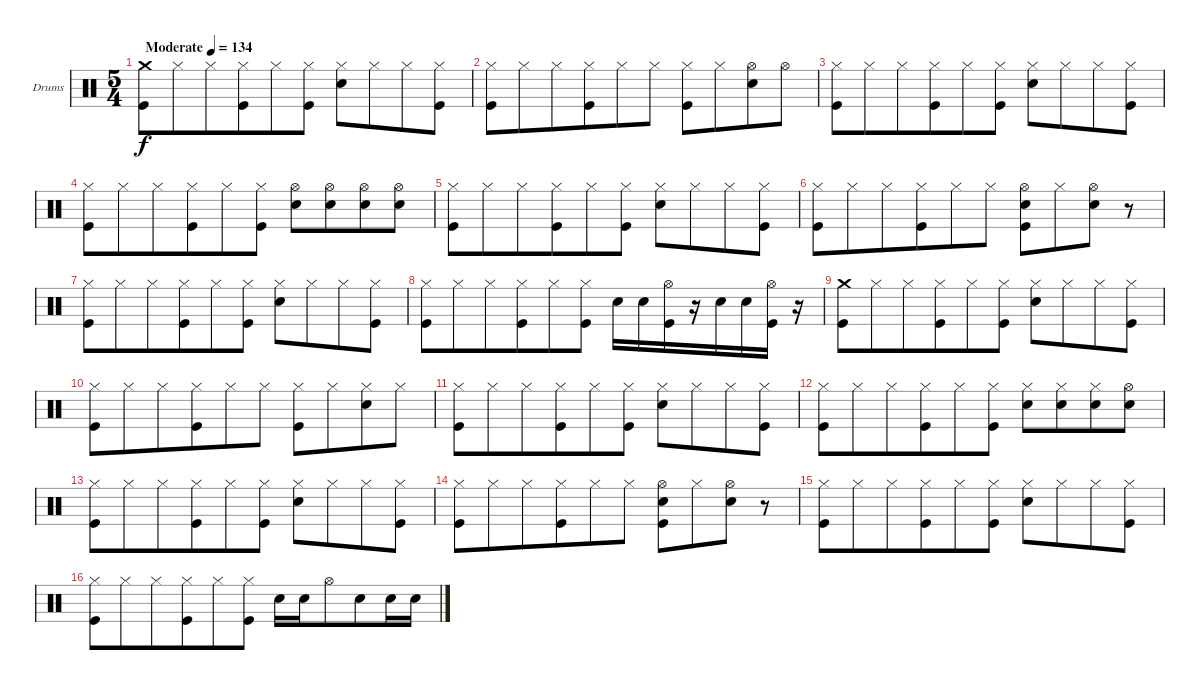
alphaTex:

\bracketExtendMode groupsimilarinstruments
\firstSystemTrackNameOrientation horizontal
\otherSystemsTrackNameOrientation horizontal
\track ("Drumkit" "Drums") {instrument percussion}
\staff {score}
\articulation defaults
\ts (5 4)
\beaming (8 6 4)
\tempo (134 "Moderate")
\clef neutral
\ks c
("Kick (hit)" "Crash medium (hit)").8{dy f} "Hi-Hat (closed)".8 "Hi-Hat (closed)".8 ("Kick (hit)" "Hi-Hat (closed)").8 "Hi-Hat (closed)".8 ("Hi-Hat (closed)" "Kick (hit)").8 ("Snare (hit) 2" "Hi-Hat (closed)").8 "Hi-Hat (closed)".8 "Hi-Hat (closed)".8 ("Hi-Hat (closed)" "Kick (hit)").8 |
("Hi-Hat (closed)" "Kick (hit)").8 "Hi-Hat (closed)".8 "Hi-Hat (closed)".8 ("Kick (hit)" "Hi-Hat (closed)").8 "Hi-Hat (closed)".8 "Hi-Hat (closed)".8 ("Hi-Hat (closed)" "Kick (hit)").8 "Hi-Hat (closed)".8 ("Snare (hit) 2" "Hi-Hat (open)").8 "Hi-Hat (open)".8 |
("Hi-Hat (closed)" "Kick (hit)").8 "Hi-Hat (closed)".8 "Hi-Hat (closed)".8 ("Kick (hit)" "Hi-Hat (closed)").8 "Hi-Hat (closed)".8 ("Hi-Hat (closed)" "Kick (hit)").8 ("Snare (hit) 2" "Hi-Hat (closed)").8 "Hi-Hat (closed)".8 "Hi-Hat (closed)".8 ("Hi-Hat (closed)" "Kick (hit)").8 |
("Hi-Hat (closed)" "Kick (hit)").8 "Hi-Hat (closed)".8 "Hi-Hat (closed)".8 ("Kick (hit)" "Hi-Hat (closed)").8 "Hi-Hat (closed)".8 ("Kick (hit)" "Hi-Hat (closed)").8 ("Snare (hit) 2" "Hi-Hat (open)").8 ("Snare (hit) 2" "Hi-Hat (open)").8 ("Snare (hit) 2" "Hi-Hat (open)").8 ("Snare (hit) 2" "Hi-Hat (open)").8 |
("Kick (hit)" "Hi-Hat (closed)").8 "Hi-Hat (closed)".8 "Hi-Hat (closed)".8 ("Hi-Hat (closed)" "Kick (hit)").8 "Hi-Hat (closed)".8 ("Kick (hit)" "Hi-Hat (closed)").8 ("Hi-Hat (closed)" "Snare (hit) 2").8 "Hi-Hat (closed)".8 "Hi-Hat (closed)".8 ("Kick (hit)" "Hi-Hat (closed)").8 |
("Kick (hit)" "Hi-Hat (closed)").8 "Hi-Hat (closed)".8 "Hi-Hat (closed)".8 ("Hi-Hat (closed)" "Kick (hit)").8 "Hi-Hat (closed)".8 "Hi-Hat (closed)".8 ("Kick (hit)" "Snare (hit) 2" "Hi-Hat (open)").8 "Hi-Hat (closed)".8 ("Snare (hit) 2" "Hi-Hat (open)").8 r.8 |
("Kick (hit)" "Hi-Hat (closed)").8 "Hi-Hat (closed)".8 "Hi-Hat (closed)".8 ("Hi-Hat (closed)" "Kick (hit)").8 "Hi-Hat (closed)".8 ("Kick (hit)" "Hi-Hat (closed)").8 ("Hi-Hat (closed)" "Snare (hit) 2").8 "Hi-Hat (closed)".8 "Hi-Hat (closed)".8 ("Kick (hit)" "Hi-Hat (closed)").8 |
("Kick (hit)" "Hi-Hat (closed)").8 "Hi-Hat (closed)".8 "Hi-Hat (closed)".8 ("Hi-Hat (closed)" "Kick (hit)").8 "Hi-Hat (closed)".8 ("Hi-Hat (closed)" "Kick (hit)").8 "Snare (hit) 2".16 "Snare (hit) 2".16 ("Kick (hit)" "Hi-Hat (open)").16 r.16 "Snare (hit) 2".16 "Snare (hit) 2".16 ("Kick (hit)" "Hi-Hat (open)").16 r.16 |
("Kick (hit)" "Crash medium (hit)").8 "Hi-Hat (closed)".8 "Hi-Hat (closed)".8 ("Hi-Hat (closed)" "Kick (hit)").8 "Hi-Hat (closed)".8 ("Kick (hit)" "Hi-Hat (closed)").8 ("Hi-Hat (closed)" "Snare (hit) 2").8 "Hi-Hat (closed)".8 "Hi-Hat (closed)".8 ("Kick (hit)" "Hi-Hat (closed)").8 |
("Kick (hit)" "Hi-Hat (closed)").8 "Hi-Hat (closed)".8 "Hi-Hat (closed)".8 ("Hi-Hat (closed)" "Kick (hit)").8 "Hi-Hat (closed)".8 "Hi-Hat (closed)".8 ("Kick (hit)" "Hi-Hat (closed)").8 "Hi-Hat (closed)".8 ("Hi-Hat (closed)" "Snare (hit) 2").8 "Hi-Hat (closed)".8 |
("Kick (hit)" "Hi-Hat (closed)").8 "Hi-Hat (closed)".8 "Hi-Hat (closed)".8 ("Hi-Hat (closed)" "Kick (hit)").8 "Hi-Hat (closed)".8 ("Kick (hit)" "Hi-Hat (closed)").8 ("Hi-Hat (closed)" "Snare (hit) 2").8 "Hi-Hat (closed)".8 "Hi-Hat (closed)".8 ("Kick (hit)" "Hi-Hat (closed)").8 |
("Kick (hit)" "Hi-Hat (closed)").8 "Hi-Hat (closed)".8 "Hi-Hat (closed)".8 ("Hi-Hat (closed)" "Kick (hit)").8 "Hi-Hat (closed)".8 ("Kick (hit)" "Hi-Hat (closed)").8 ("Snare (hit) 2" "Hi-Hat (closed)").8 ("Snare (hit) 2" "Hi-Hat (closed)").8 ("Snare (hit) 2" "Hi-Hat (closed)").8 ("Hi-Hat (open)" "Snare (hit) 2").8 |
("Hi-Hat (closed)" "Kick (hit)").8 "Hi-Hat (closed)".8 "Hi-Hat (closed)".8 ("Kick (hit)" "Hi-Hat (closed)").8 "Hi-Hat (closed)".8 ("Hi-Hat (closed)" "Kick (hit)").8 ("Snare (hit) 2" "Hi-Hat (closed)").8 "Hi-Hat (closed)".8 "Hi-Hat (closed)".8 ("Hi-Hat (closed)" "Kick (hit)").8 |
("Hi-Hat (closed)" "Kick (hit)").8 "Hi-Hat (closed)".8 "Hi-Hat (closed)".8 ("Kick (hit)" "Hi-Hat (closed)").8 "Hi-Hat (closed)".8 "Hi-Hat (closed)".8 ("Snare (hit) 2" "Hi-Hat (open)" "Kick (hit)").8 "Hi-Hat (closed)".8 ("Snare (hit) 2" "Hi-Hat (open)").8 r.8 |
("Hi-Hat (closed)" "Kick (hit)").8 "Hi-Hat (closed)".8 "Hi-Hat (closed)".8 ("Kick (hit)" "Hi-Hat (closed)").8 "Hi-Hat (closed)".8 ("Hi-Hat (closed)" "Kick (hit)").8 ("Snare (hit) 2" "Hi-Hat (closed)").8 "Hi-Hat (closed)".8 "Hi-Hat (closed)".8 ("Hi-Hat (closed)" "Kick (hit)").8 |
("Hi-Hat (closed)" "Kick (hit)").8 "Hi-Hat (closed)".8 "Hi-Hat (closed)".8 ("Kick (hit)" "Hi-Hat (closed)").8 "Hi-Hat (closed)".8 ("Kick (hit)" "Hi-Hat (closed)").8 "Snare (hit) 2".16 "Snare (hit) 2".16 "Hi-Hat (open)".8 "Snare (hit) 2".8 "Snare (hit) 2".16 "Snare (hit) 2".16
